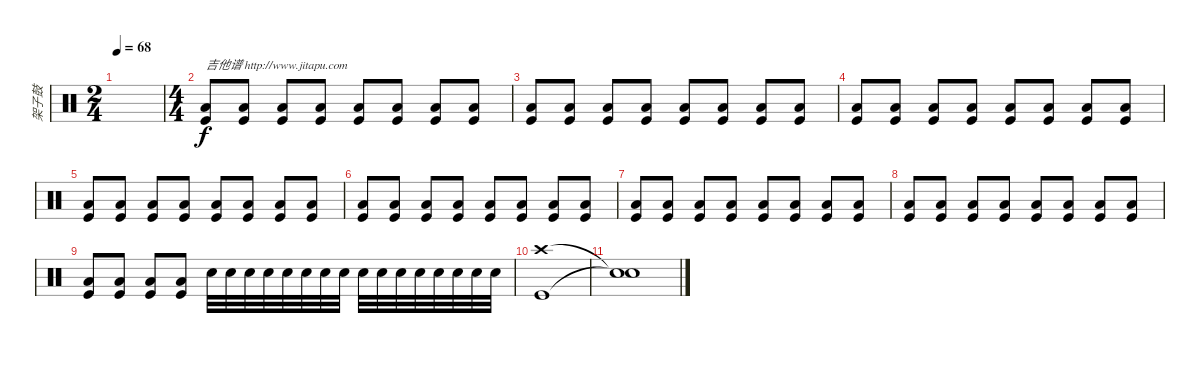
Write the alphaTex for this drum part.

\track ("架子鼓" "架子鼓") {instrument percussion}
\staff {score}
\articulation defaults
\ts (2 4)
\tempo 68
\clef neutral
\ks c
|
\ts (4 4)
("Low Floor Tom (hit)" "Kick (hit)").8{txt "吉他谱 http://www.jitapu.com"} ("Low Floor Tom (hit)" "Kick (hit)").8 ("Low Floor Tom (hit)" "Kick (hit)").8 ("Low Floor Tom (hit)" "Kick (hit)").8 ("Low Floor Tom (hit)" "Kick (hit)").8 ("Low Floor Tom (hit)" "Kick (hit)").8 ("Low Floor Tom (hit)" "Kick (hit)").8 ("Low Floor Tom (hit)" "Kick (hit)").8 |
("Low Floor Tom (hit)" "Kick (hit)").8 ("Low Floor Tom (hit)" "Kick (hit)").8 ("Low Floor Tom (hit)" "Kick (hit)").8 ("Low Floor Tom (hit)" "Kick (hit)").8 ("Low Floor Tom (hit)" "Kick (hit)").8 ("Low Floor Tom (hit)" "Kick (hit)").8 ("Low Floor Tom (hit)" "Kick (hit)").8 ("Low Floor Tom (hit)" "Kick (hit)").8 |
("Low Floor Tom (hit)" "Kick (hit)").8 ("Low Floor Tom (hit)" "Kick (hit)").8 ("Low Floor Tom (hit)" "Kick (hit)").8 ("Low Floor Tom (hit)" "Kick (hit)").8 ("Low Floor Tom (hit)" "Kick (hit)").8 ("Low Floor Tom (hit)" "Kick (hit)").8 ("Low Floor Tom (hit)" "Kick (hit)").8 ("Low Floor Tom (hit)" "Kick (hit)").8 |
("Low Floor Tom (hit)" "Kick (hit)").8 ("Low Floor Tom (hit)" "Kick (hit)").8 ("Low Floor Tom (hit)" "Kick (hit)").8 ("Low Floor Tom (hit)" "Kick (hit)").8 ("Low Floor Tom (hit)" "Kick (hit)").8 ("Low Floor Tom (hit)" "Kick (hit)").8 ("Low Floor Tom (hit)" "Kick (hit)").8 ("Low Floor Tom (hit)" "Kick (hit)").8 |
("Low Floor Tom (hit)" "Kick (hit)").8 ("Low Floor Tom (hit)" "Kick (hit)").8 ("Low Floor Tom (hit)" "Kick (hit)").8 ("Low Floor Tom (hit)" "Kick (hit)").8 ("Low Floor Tom (hit)" "Kick (hit)").8 ("Low Floor Tom (hit)" "Kick (hit)").8 ("Low Floor Tom (hit)" "Kick (hit)").8 ("Low Floor Tom (hit)" "Kick (hit)").8 |
("Low Floor Tom (hit)" "Kick (hit)").8 ("Low Floor Tom (hit)" "Kick (hit)").8 ("Low Floor Tom (hit)" "Kick (hit)").8 ("Low Floor Tom (hit)" "Kick (hit)").8 ("Low Floor Tom (hit)" "Kick (hit)").8 ("Low Floor Tom (hit)" "Kick (hit)").8 ("Low Floor Tom (hit)" "Kick (hit)").8 ("Low Floor Tom (hit)" "Kick (hit)").8 |
("Low Floor Tom (hit)" "Kick (hit)").8 ("Low Floor Tom (hit)" "Kick (hit)").8 ("Low Floor Tom (hit)" "Kick (hit)").8 ("Low Floor Tom (hit)" "Kick (hit)").8 ("Low Floor Tom (hit)" "Kick (hit)").8 ("Low Floor Tom (hit)" "Kick (hit)").8 ("Low Floor Tom (hit)" "Kick (hit)").8 ("Low Floor Tom (hit)" "Kick (hit)").8 |
("Low Floor Tom (hit)" "Kick (hit)").8 ("Low Floor Tom (hit)" "Kick (hit)").8 ("Low Floor Tom (hit)" "Kick (hit)").8 ("Low Floor Tom (hit)" "Kick (hit)").8 "Electric Snare (hit)".32 "Electric Snare (hit)".32 "Electric Snare (hit)".32 "Electric Snare (hit)".32 "Electric Snare (hit)".32 "Electric Snare (hit)".32 "Electric Snare (hit)".32 "Electric Snare (hit)".32 "Electric Snare (hit)".32 "Electric Snare (hit)".32 "Electric Snare (hit)".32 "Electric Snare (hit)".32 "Electric Snare (hit)".32 "Electric Snare (hit)".32 "Electric Snare (hit)".32 "Electric Snare (hit)".32 |
("Crash high (hit)" "Kick (hit)").1 |
("Snare (hit)"{t} "Snare (hit)"{t}).1
